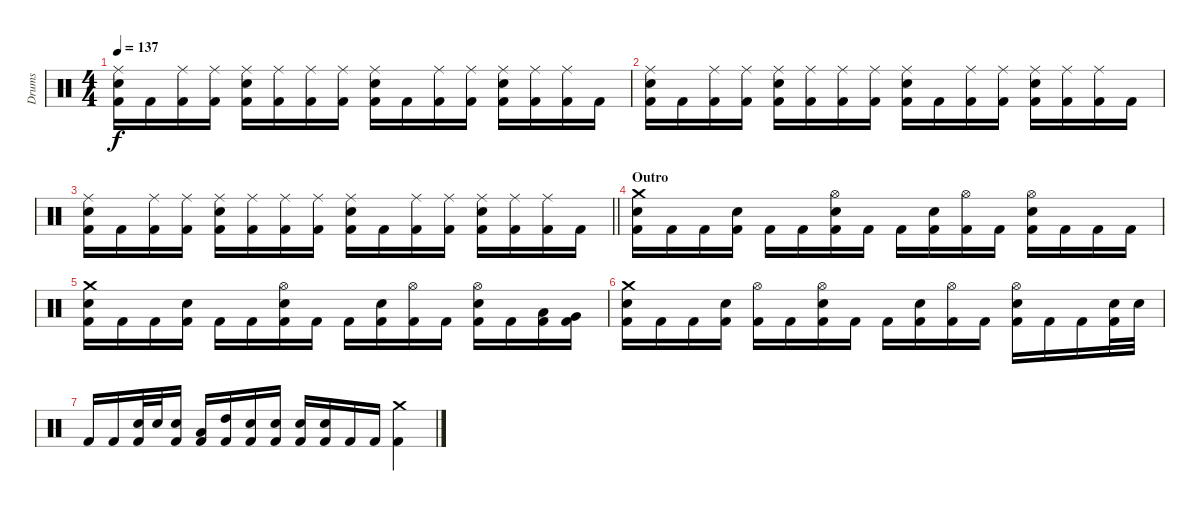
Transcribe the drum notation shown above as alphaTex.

\track ("Drums" "Drums") {instrument percussion}
\staff {score}
\articulation defaults
\ts (4 4)
\tempo 137
\clef neutral
\ks c
("Ride (middle)" "Electric Snare (hit)" "Kick (hit) 2").16{dy f} "Kick (hit) 2".16 ("Ride (middle)" "Kick (hit) 2").16 ("Ride (middle)" "Kick (hit) 2").16 ("Ride (middle)" "Electric Snare (hit)" "Kick (hit) 2").16 ("Ride (middle)" "Kick (hit) 2").16 ("Ride (middle)" "Kick (hit) 2").16 ("Ride (middle)" "Kick (hit) 2").16 ("Ride (middle)" "Electric Snare (hit)" "Kick (hit) 2").16 "Kick (hit) 2".16 ("Ride (middle)" "Kick (hit) 2").16 ("Ride (middle)" "Kick (hit) 2").16 ("Ride (middle)" "Electric Snare (hit)" "Kick (hit) 2").16 ("Ride (middle)" "Kick (hit) 2").16 ("Ride (middle)" "Kick (hit) 2").16 "Kick (hit) 2".16 |
("Ride (middle)" "Electric Snare (hit)" "Kick (hit) 2").16 "Kick (hit) 2".16 ("Ride (middle)" "Kick (hit) 2").16 ("Ride (middle)" "Kick (hit) 2").16 ("Ride (middle)" "Electric Snare (hit)" "Kick (hit) 2").16 ("Ride (middle)" "Kick (hit) 2").16 ("Ride (middle)" "Kick (hit) 2").16 ("Ride (middle)" "Kick (hit) 2").16 ("Ride (middle)" "Electric Snare (hit)" "Kick (hit) 2").16 "Kick (hit) 2".16 ("Ride (middle)" "Kick (hit) 2").16 ("Ride (middle)" "Kick (hit) 2").16 ("Ride (middle)" "Electric Snare (hit)" "Kick (hit) 2").16 ("Ride (middle)" "Kick (hit) 2").16 ("Ride (middle)" "Kick (hit) 2").16 "Kick (hit) 2".16 |
\barLineRight lightlight
("Ride (middle)" "Electric Snare (hit)" "Kick (hit) 2").16 "Kick (hit) 2".16 ("Ride (middle)" "Kick (hit) 2").16 ("Ride (middle)" "Kick (hit) 2").16 ("Ride (middle)" "Electric Snare (hit)" "Kick (hit) 2").16 ("Ride (middle)" "Kick (hit) 2").16 ("Ride (middle)" "Kick (hit) 2").16 ("Ride (middle)" "Kick (hit) 2").16 ("Ride (middle)" "Electric Snare (hit)" "Kick (hit) 2").16 "Kick (hit) 2".16 ("Ride (middle)" "Kick (hit) 2").16 ("Ride (middle)" "Kick (hit) 2").16 ("Ride (middle)" "Electric Snare (hit)" "Kick (hit) 2").16 ("Ride (middle)" "Kick (hit) 2").16 ("Ride (middle)" "Kick (hit) 2").16 "Kick (hit) 2".16 |
\section ("" "Outro")
("Crash medium (hit)" "Electric Snare (hit)" "Kick (hit) 2").16 "Kick (hit) 2".16 "Kick (hit) 2".16 ("Electric Snare (hit)" "Kick (hit) 2").16 "Kick (hit) 2".16 "Kick (hit) 2".16 ("Hi-Hat (open)" "Electric Snare (hit)" "Kick (hit) 2").16 "Kick (hit) 2".16 "Kick (hit) 2".16 ("Electric Snare (hit)" "Kick (hit) 2").16 ("Hi-Hat (open)" "Kick (hit) 2").16 "Kick (hit) 2".16 ("Hi-Hat (open)" "Electric Snare (hit)" "Kick (hit) 2").16 "Kick (hit) 2".16 "Kick (hit) 2".16 "Kick (hit) 2".16 |
("Crash medium (hit)" "Electric Snare (hit)" "Kick (hit) 2").16 "Kick (hit) 2".16 "Kick (hit) 2".16 ("Electric Snare (hit)" "Kick (hit) 2").16 "Kick (hit) 2".16 "Kick (hit) 2".16 ("Hi-Hat (open)" "Electric Snare (hit)" "Kick (hit) 2").16 "Kick (hit) 2".16 "Kick (hit) 2".16 ("Electric Snare (hit)" "Kick (hit) 2").16 ("Hi-Hat (open)" "Kick (hit) 2").16 "Kick (hit) 2".16 ("Hi-Hat (open)" "Electric Snare (hit)" "Kick (hit) 2").16 "Kick (hit) 2".16 ("Low Tom (hit)" "Kick (hit) 2").16 ("Very Low Tom (hit)" "Kick (hit) 2").16 |
("Crash medium (hit)" "Electric Snare (hit)" "Kick (hit) 2").16 "Kick (hit) 2".16 "Kick (hit) 2".16 ("Electric Snare (hit)" "Kick (hit) 2").16 ("Hi-Hat (open)" "Kick (hit) 2").16 "Kick (hit) 2".16 ("Hi-Hat (open)" "Electric Snare (hit)" "Kick (hit) 2").16 "Kick (hit) 2".16 "Kick (hit) 2".16 ("Electric Snare (hit)" "Kick (hit) 2").16 ("Hi-Hat (open)" "Kick (hit) 2").16 "Kick (hit) 2".16 ("Hi-Hat (open)" "Electric Snare (hit)" "Kick (hit) 2").16 "Kick (hit) 2".16 "Kick (hit) 2".16 ("Electric Snare (hit)" "Kick (hit) 2").32 "Electric Snare (hit)".32 |
"Kick (hit) 2".16 "Kick (hit) 2".16 ("Electric Snare (hit)" "Kick (hit) 2").32 "Electric Snare (hit)".32 ("Electric Snare (hit)" "Kick (hit) 2").16 ("Low Tom (hit)" "Kick (hit) 2").16 ("High Tom (hit)" "Kick (hit) 2").16 ("Electric Snare (hit)" "Kick (hit) 2").16 ("Electric Snare (hit)" "Kick (hit) 2").16 ("Electric Snare (hit)" "Kick (hit) 2").16 ("Electric Snare (hit)" "Kick (hit) 2").16 "Kick (hit) 2".16 "Kick (hit) 2".16 ("Crash medium (hit)" "Kick (hit) 2").4
